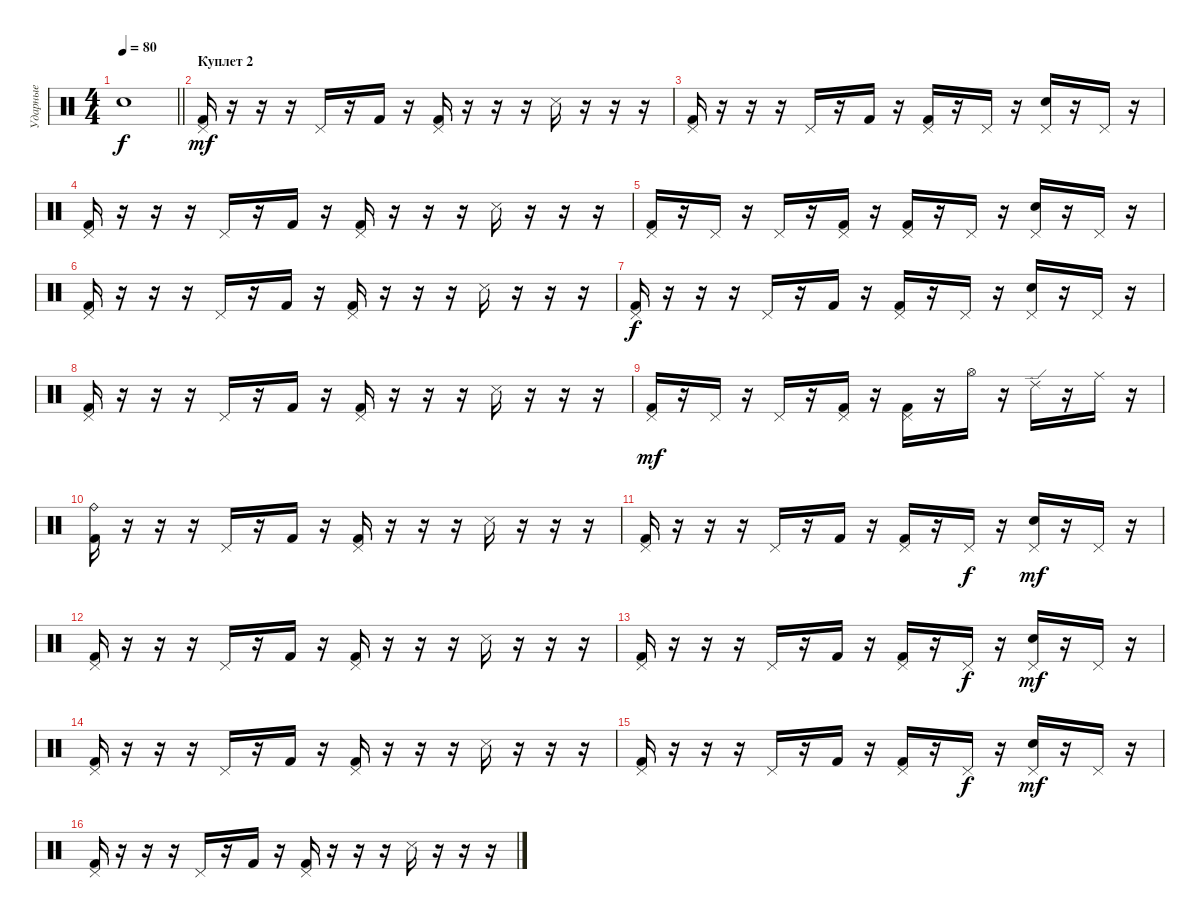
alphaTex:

\track ("Ударные" "Ударные") {instrument percussion}
\staff {score}
\articulation defaults
\ts (4 4)
\tempo 80
\clef neutral
\barLineRight lightlight
\ks c "Snare (hit)"{t}.1{dy f}
|
\section ("" "Куплет 2")
("Pedal Hi-Hat (hit)" "Kick (hit) 2").16{dy mf} r.16 r.16 r.16 "Pedal Hi-Hat (hit)".16 r.16 "Kick (hit) 2".16 r.16 ("Pedal Hi-Hat (hit)" "Kick (hit) 2").16 r.16 r.16 r.16 "Snare (side stick) 3".16 r.16 r.16 r.16 |
("Pedal Hi-Hat (hit)" "Kick (hit) 2").16 r.16 r.16 r.16 "Pedal Hi-Hat (hit)".16 r.16 "Kick (hit) 2".16 r.16 ("Pedal Hi-Hat (hit)" "Kick (hit) 2").16 r.16 "Pedal Hi-Hat (hit)".16 r.16 ("Pedal Hi-Hat (hit)" "Electric Snare (hit)").16 r.16 "Pedal Hi-Hat (hit)".16 r.16 |
("Pedal Hi-Hat (hit)" "Kick (hit) 2").16 r.16 r.16 r.16 "Pedal Hi-Hat (hit)".16 r.16 "Kick (hit) 2".16 r.16 ("Pedal Hi-Hat (hit)" "Kick (hit) 2").16 r.16 r.16 r.16 "Snare (side stick) 3".16 r.16 r.16 r.16 |
("Pedal Hi-Hat (hit)" "Kick (hit) 2").16 r.16 "Pedal Hi-Hat (hit)".16 r.16 "Pedal Hi-Hat (hit)".16 r.16 ("Pedal Hi-Hat (hit)" "Kick (hit) 2").16 r.16 ("Pedal Hi-Hat (hit)" "Kick (hit) 2").16 r.16 "Pedal Hi-Hat (hit)".16 r.16 ("Pedal Hi-Hat (hit)" "Electric Snare (hit)").16 r.16 "Pedal Hi-Hat (hit)".16 r.16 |
("Pedal Hi-Hat (hit)" "Kick (hit) 2").16 r.16 r.16 r.16 "Pedal Hi-Hat (hit)".16 r.16 "Kick (hit) 2".16 r.16 ("Pedal Hi-Hat (hit)" "Kick (hit) 2").16 r.16 r.16 r.16 "Snare (side stick) 3".16 r.16 r.16 r.16 |
("Pedal Hi-Hat (hit)" "Kick (hit) 2").16{dy f} r.16 r.16 r.16 "Pedal Hi-Hat (hit)".16 r.16 "Kick (hit) 2".16 r.16 ("Pedal Hi-Hat (hit)" "Kick (hit) 2").16 r.16 "Pedal Hi-Hat (hit)".16 r.16 ("Pedal Hi-Hat (hit)" "Electric Snare (hit)").16 r.16 "Pedal Hi-Hat (hit)".16 r.16 |
("Pedal Hi-Hat (hit)" "Kick (hit) 2").16 r.16 r.16 r.16 "Pedal Hi-Hat (hit)".16 r.16 "Kick (hit) 2".16 r.16 ("Pedal Hi-Hat (hit)" "Kick (hit) 2").16 r.16 r.16 r.16 "Snare (side stick) 3".16 r.16 r.16 r.16 |
("Pedal Hi-Hat (hit)" "Kick (hit) 2").16{dy mf} r.16 "Pedal Hi-Hat (hit)".16 r.16 "Pedal Hi-Hat (hit)".16 r.16 ("Pedal Hi-Hat (hit)" "Kick (hit) 2").16 r.16 ("Pedal Hi-Hat (hit)" "Kick (hit) 2").16 r.16 "Hi-Hat (open)".16 r.16 "Ride (edge) 2".16 r.16 "Ride (middle)".16 r.16 |
("Ride (bell)" "Kick (hit) 2").16 r.16 r.16 r.16 "Pedal Hi-Hat (hit)".16 r.16 "Kick (hit) 2".16 r.16 ("Pedal Hi-Hat (hit)" "Kick (hit) 2").16 r.16 r.16 r.16 "Snare (side stick) 3".16 r.16 r.16 r.16 |
("Pedal Hi-Hat (hit)" "Kick (hit) 2").16 r.16 r.16 r.16 "Pedal Hi-Hat (hit)".16 r.16 "Kick (hit) 2".16 r.16 ("Pedal Hi-Hat (hit)" "Kick (hit) 2").16 r.16 "Pedal Hi-Hat (hit)".16{dy f} r.16 ("Pedal Hi-Hat (hit)" "Electric Snare (hit)").16{dy mf} r.16 "Pedal Hi-Hat (hit)".16 r.16 |
("Pedal Hi-Hat (hit)" "Kick (hit) 2").16 r.16 r.16 r.16 "Pedal Hi-Hat (hit)".16 r.16 "Kick (hit) 2".16 r.16 ("Pedal Hi-Hat (hit)" "Kick (hit) 2").16 r.16 r.16 r.16 "Snare (side stick) 3".16 r.16 r.16 r.16 |
("Pedal Hi-Hat (hit)" "Kick (hit) 2").16 r.16 r.16 r.16 "Pedal Hi-Hat (hit)".16 r.16 "Kick (hit) 2".16 r.16 ("Pedal Hi-Hat (hit)" "Kick (hit) 2").16 r.16 "Pedal Hi-Hat (hit)".16{dy f} r.16 ("Pedal Hi-Hat (hit)" "Electric Snare (hit)").16{dy mf} r.16 "Pedal Hi-Hat (hit)".16 r.16 |
("Pedal Hi-Hat (hit)" "Kick (hit) 2").16 r.16 r.16 r.16 "Pedal Hi-Hat (hit)".16 r.16 "Kick (hit) 2".16 r.16 ("Pedal Hi-Hat (hit)" "Kick (hit) 2").16 r.16 r.16 r.16 "Snare (side stick) 3".16 r.16 r.16 r.16 |
("Pedal Hi-Hat (hit)" "Kick (hit) 2").16 r.16 r.16 r.16 "Pedal Hi-Hat (hit)".16 r.16 "Kick (hit) 2".16 r.16 ("Pedal Hi-Hat (hit)" "Kick (hit) 2").16 r.16 "Pedal Hi-Hat (hit)".16{dy f} r.16 ("Pedal Hi-Hat (hit)" "Electric Snare (hit)").16{dy mf} r.16 "Pedal Hi-Hat (hit)".16 r.16 |
("Pedal Hi-Hat (hit)" "Kick (hit) 2").16 r.16 r.16 r.16 "Pedal Hi-Hat (hit)".16 r.16 "Kick (hit) 2".16 r.16 ("Pedal Hi-Hat (hit)" "Kick (hit) 2").16 r.16 r.16 r.16 "Snare (side stick) 3".16 r.16 r.16 r.16
